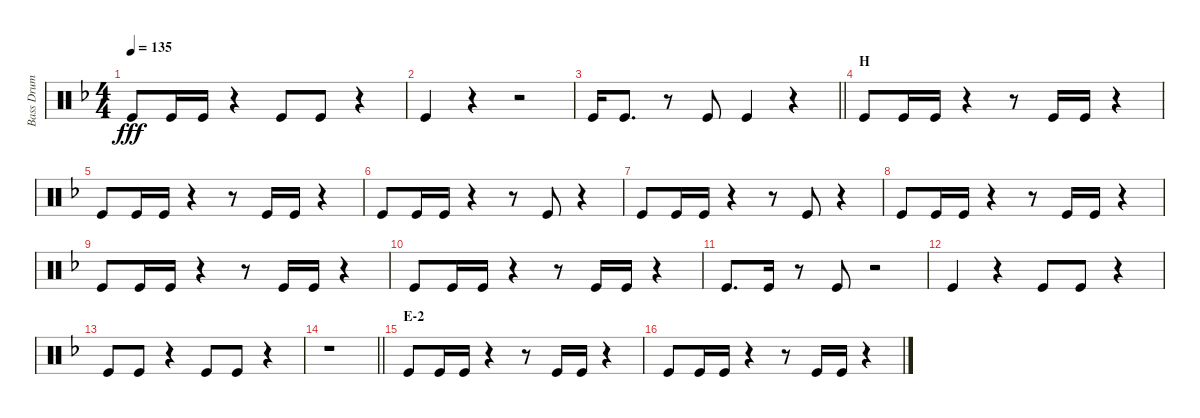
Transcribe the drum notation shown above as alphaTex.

\track ("Bass Drum" "Bass Drum") {instrument percussion}
\staff {score}
\articulation defaults
\ts (4 4)
\tempo 135
\clef neutral
\ks f "Kick (hit)".8{dy fff} "Kick (hit)".16 "Kick (hit)".16
r.4 "Kick (hit)".8 "Kick (hit)".8 r.4 |
"Kick (hit)".4 r.4 r.2 |
\barLineRight lightlight "Kick (hit)".16 "Kick (hit)".8{d}
r.8 "Kick (hit)".8 "Kick (hit)".4 r.4 |
\section ("" "H")
"Kick (hit)".8 "Kick (hit)".16 "Kick (hit)".16 r.4 r.8 "Kick (hit)".16 "Kick (hit)".16 r.4 |
"Kick (hit)".8 "Kick (hit)".16 "Kick (hit)".16 r.4 r.8 "Kick (hit)".16 "Kick (hit)".16 r.4 |
"Kick (hit)".8 "Kick (hit)".16 "Kick (hit)".16 r.4 r.8 "Kick (hit)".8 r.4 |
"Kick (hit)".8 "Kick (hit)".16 "Kick (hit)".16 r.4 r.8 "Kick (hit)".8 r.4 |
"Kick (hit)".8 "Kick (hit)".16 "Kick (hit)".16 r.4 r.8 "Kick (hit)".16 "Kick (hit)".16 r.4 |
"Kick (hit)".8 "Kick (hit)".16 "Kick (hit)".16 r.4 r.8 "Kick (hit)".16 "Kick (hit)".16 r.4 |
"Kick (hit)".8 "Kick (hit)".16 "Kick (hit)".16 r.4 r.8 "Kick (hit)".16 "Kick (hit)".16 r.4 |
"Kick (hit)".8{d} "Kick (hit)".16 r.8 "Kick (hit)".8 r.2 |
"Kick (hit)".4 r.4 "Kick (hit)".8 "Kick (hit)".8 r.4 |
"Kick (hit)".8 "Kick (hit)".8 r.4 "Kick (hit)".8 "Kick (hit)".8 r.4 |
\barLineRight lightlight
r.1 |
\section ("" "E-2")
"Kick (hit)".8 "Kick (hit)".16 "Kick (hit)".16 r.4 r.8 "Kick (hit)".16 "Kick (hit)".16 r.4 |
"Kick (hit)".8 "Kick (hit)".16 "Kick (hit)".16 r.4 r.8 "Kick (hit)".16 "Kick (hit)".16 r.4
